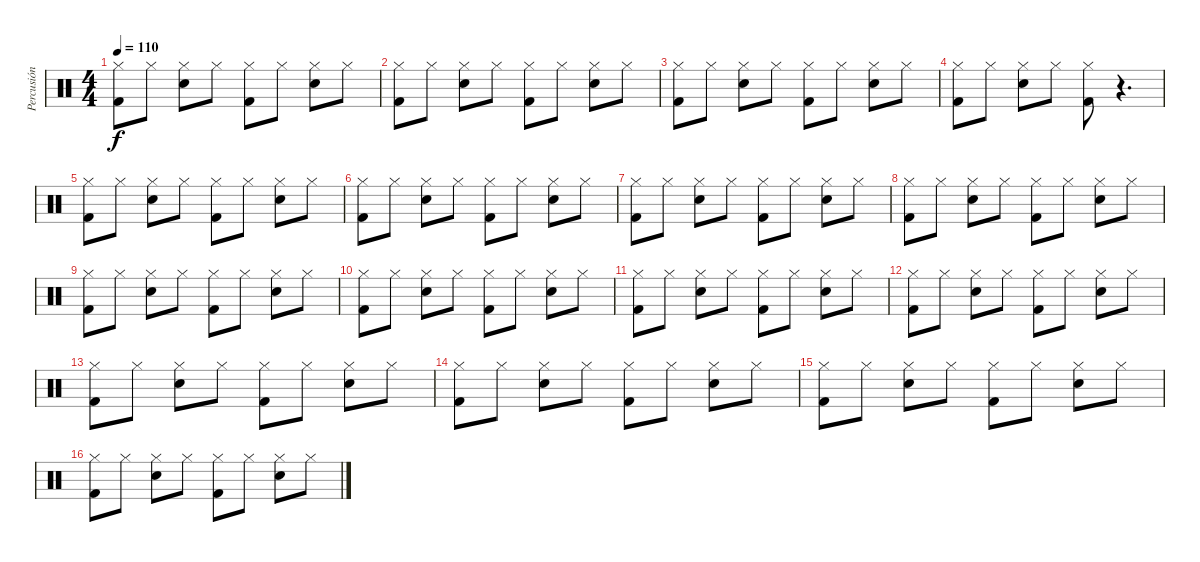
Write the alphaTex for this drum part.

\track ("Percusión" "Percusión") {instrument percussion}
\staff {score}
\articulation defaults
\ts (4 4)
\tempo 110
\clef neutral
\ks c
("Kick (hit) 2" "Hi-Hat (closed)").8{dy f} "Hi-Hat (closed)".8 ("Snare (hit) 2" "Hi-Hat (closed)").8 "Hi-Hat (closed)".8 ("Kick (hit) 2" "Hi-Hat (closed)").8 "Hi-Hat (closed)".8 ("Snare (hit) 2" "Hi-Hat (closed)").8 "Hi-Hat (closed)".8 |
("Kick (hit) 2" "Hi-Hat (closed)").8 "Hi-Hat (closed)".8 ("Snare (hit) 2" "Hi-Hat (closed)").8 "Hi-Hat (closed)".8 ("Kick (hit) 2" "Hi-Hat (closed)").8 "Hi-Hat (closed)".8 ("Snare (hit) 2" "Hi-Hat (closed)").8 "Hi-Hat (closed)".8 |
("Kick (hit) 2" "Hi-Hat (closed)").8 "Hi-Hat (closed)".8 ("Snare (hit) 2" "Hi-Hat (closed)").8 "Hi-Hat (closed)".8 ("Kick (hit) 2" "Hi-Hat (closed)").8 "Hi-Hat (closed)".8 ("Snare (hit) 2" "Hi-Hat (closed)").8 "Hi-Hat (closed)".8 |
("Kick (hit) 2" "Hi-Hat (closed)").8 "Hi-Hat (closed)".8 ("Snare (hit) 2" "Hi-Hat (closed)").8 "Hi-Hat (closed)".8 ("Kick (hit) 2" "Hi-Hat (closed)").8 r.4{d} |
("Kick (hit) 2" "Hi-Hat (closed)").8 "Hi-Hat (closed)".8 ("Snare (hit) 2" "Hi-Hat (closed)").8 "Hi-Hat (closed)".8 ("Kick (hit) 2" "Hi-Hat (closed)").8 "Hi-Hat (closed)".8 ("Snare (hit) 2" "Hi-Hat (closed)").8 "Hi-Hat (closed)".8 |
("Kick (hit) 2" "Hi-Hat (closed)").8 "Hi-Hat (closed)".8 ("Snare (hit) 2" "Hi-Hat (closed)").8 "Hi-Hat (closed)".8 ("Kick (hit) 2" "Hi-Hat (closed)").8 "Hi-Hat (closed)".8 ("Snare (hit) 2" "Hi-Hat (closed)").8 "Hi-Hat (closed)".8 |
("Kick (hit) 2" "Hi-Hat (closed)").8 "Hi-Hat (closed)".8 ("Snare (hit) 2" "Hi-Hat (closed)").8 "Hi-Hat (closed)".8 ("Kick (hit) 2" "Hi-Hat (closed)").8 "Hi-Hat (closed)".8 ("Snare (hit) 2" "Hi-Hat (closed)").8 "Hi-Hat (closed)".8 |
("Kick (hit) 2" "Hi-Hat (closed)").8 "Hi-Hat (closed)".8 ("Snare (hit) 2" "Hi-Hat (closed)").8 "Hi-Hat (closed)".8 ("Kick (hit) 2" "Hi-Hat (closed)").8 "Hi-Hat (closed)".8 ("Snare (hit) 2" "Hi-Hat (closed)").8 "Hi-Hat (closed)".8 |
("Kick (hit) 2" "Hi-Hat (closed)").8 "Hi-Hat (closed)".8 ("Snare (hit) 2" "Hi-Hat (closed)").8 "Hi-Hat (closed)".8 ("Kick (hit) 2" "Hi-Hat (closed)").8 "Hi-Hat (closed)".8 ("Snare (hit) 2" "Hi-Hat (closed)").8 "Hi-Hat (closed)".8 |
("Kick (hit) 2" "Hi-Hat (closed)").8 "Hi-Hat (closed)".8 ("Snare (hit) 2" "Hi-Hat (closed)").8 "Hi-Hat (closed)".8 ("Kick (hit) 2" "Hi-Hat (closed)").8 "Hi-Hat (closed)".8 ("Snare (hit) 2" "Hi-Hat (closed)").8 "Hi-Hat (closed)".8 |
("Kick (hit) 2" "Hi-Hat (closed)").8 "Hi-Hat (closed)".8 ("Snare (hit) 2" "Hi-Hat (closed)").8 "Hi-Hat (closed)".8 ("Kick (hit) 2" "Hi-Hat (closed)").8 "Hi-Hat (closed)".8 ("Snare (hit) 2" "Hi-Hat (closed)").8 "Hi-Hat (closed)".8 |
("Kick (hit) 2" "Hi-Hat (closed)").8 "Hi-Hat (closed)".8 ("Snare (hit) 2" "Hi-Hat (closed)").8 "Hi-Hat (closed)".8 ("Kick (hit) 2" "Hi-Hat (closed)").8 "Hi-Hat (closed)".8 ("Snare (hit) 2" "Hi-Hat (closed)").8 "Hi-Hat (closed)".8 |
("Kick (hit) 2" "Hi-Hat (closed)").8 "Hi-Hat (closed)".8 ("Snare (hit) 2" "Hi-Hat (closed)").8 "Hi-Hat (closed)".8 ("Kick (hit) 2" "Hi-Hat (closed)").8 "Hi-Hat (closed)".8 ("Snare (hit) 2" "Hi-Hat (closed)").8 "Hi-Hat (closed)".8 |
("Kick (hit) 2" "Hi-Hat (closed)").8 "Hi-Hat (closed)".8 ("Snare (hit) 2" "Hi-Hat (closed)").8 "Hi-Hat (closed)".8 ("Kick (hit) 2" "Hi-Hat (closed)").8 "Hi-Hat (closed)".8 ("Snare (hit) 2" "Hi-Hat (closed)").8 "Hi-Hat (closed)".8 |
("Kick (hit) 2" "Hi-Hat (closed)").8 "Hi-Hat (closed)".8 ("Snare (hit) 2" "Hi-Hat (closed)").8 "Hi-Hat (closed)".8 ("Kick (hit) 2" "Hi-Hat (closed)").8 "Hi-Hat (closed)".8 ("Snare (hit) 2" "Hi-Hat (closed)").8 "Hi-Hat (closed)".8 |
("Kick (hit) 2" "Hi-Hat (closed)").8 "Hi-Hat (closed)".8 ("Snare (hit) 2" "Hi-Hat (closed)").8 "Hi-Hat (closed)".8 ("Kick (hit) 2" "Hi-Hat (closed)").8 "Hi-Hat (closed)".8 ("Snare (hit) 2" "Hi-Hat (closed)").8 "Hi-Hat (closed)".8
